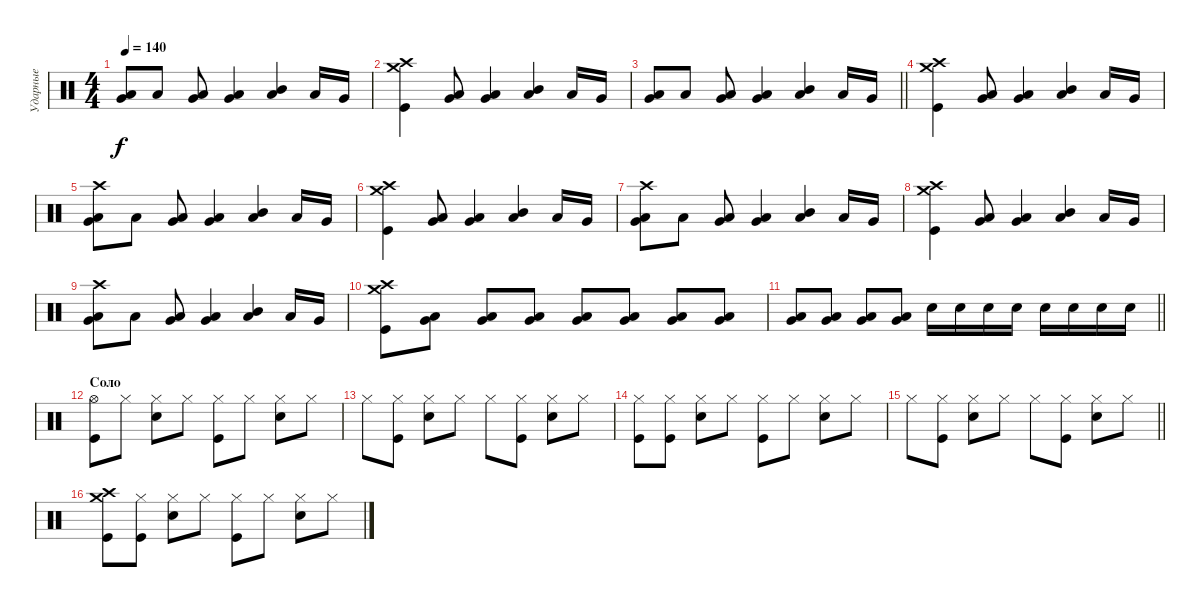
\track ("Ударные" "Ударные") {instrument percussion}
\staff {score}
\articulation defaults
\ts (4 4)
\tempo 140
\clef neutral
\ks c
("Low Floor Tom (hit)" "Very Low Tom (hit)").8{dy f} "Low Floor Tom (hit)".8 ("Low Floor Tom (hit)" "Very Low Tom (hit)").8 ("Very Low Tom (hit)" "Low Tom (hit)").4 ("Mid Tom (hit)" "Low Tom (hit)").4 "Low Tom (hit)".16 "Very Low Tom (hit)".16 |
("Crash medium (hit)" "Crash high (hit)" "Kick (hit)").4 ("Low Floor Tom (hit)" "Very Low Tom (hit)").8 ("Very Low Tom (hit)" "Low Tom (hit)").4 ("Mid Tom (hit)" "Low Tom (hit)").4 "Low Tom (hit)".16 "Very Low Tom (hit)".16 |
\barLineRight lightlight
("Low Floor Tom (hit)" "Very Low Tom (hit)").8 "Low Floor Tom (hit)".8 ("Low Floor Tom (hit)" "Very Low Tom (hit)").8 ("Very Low Tom (hit)" "Low Tom (hit)").4 ("Mid Tom (hit)" "Low Tom (hit)").4 "Low Tom (hit)".16 "Very Low Tom (hit)".16 |
("Crash medium (hit)" "Crash high (hit)" "Kick (hit)").4 ("Low Floor Tom (hit)" "Very Low Tom (hit)").8 ("Very Low Tom (hit)" "Low Tom (hit)").4 ("Mid Tom (hit)" "Low Tom (hit)").4 "Low Tom (hit)".16 "Very Low Tom (hit)".16 |
("Crash high (hit)" "Low Floor Tom (hit)" "Very Low Tom (hit)").8 "Low Floor Tom (hit)".8 ("Low Floor Tom (hit)" "Very Low Tom (hit)").8 ("Very Low Tom (hit)" "Low Tom (hit)").4 ("Mid Tom (hit)" "Low Tom (hit)").4 "Low Tom (hit)".16 "Very Low Tom (hit)".16 |
("Crash medium (hit)" "Crash high (hit)" "Kick (hit)").4 ("Low Floor Tom (hit)" "Very Low Tom (hit)").8 ("Very Low Tom (hit)" "Low Tom (hit)").4 ("Mid Tom (hit)" "Low Tom (hit)").4 "Low Tom (hit)".16 "Very Low Tom (hit)".16 |
("Crash high (hit)" "Low Floor Tom (hit)" "Very Low Tom (hit)").8 "Low Floor Tom (hit)".8 ("Low Floor Tom (hit)" "Very Low Tom (hit)").8 ("Very Low Tom (hit)" "Low Tom (hit)").4 ("Mid Tom (hit)" "Low Tom (hit)").4 "Low Tom (hit)".16 "Very Low Tom (hit)".16 |
("Crash medium (hit)" "Crash high (hit)" "Kick (hit)").4 ("Low Floor Tom (hit)" "Very Low Tom (hit)").8 ("Very Low Tom (hit)" "Low Tom (hit)").4 ("Mid Tom (hit)" "Low Tom (hit)").4 "Low Tom (hit)".16 "Very Low Tom (hit)".16 |
("Crash high (hit)" "Low Floor Tom (hit)" "Very Low Tom (hit)").8 "Low Floor Tom (hit)".8 ("Low Floor Tom (hit)" "Very Low Tom (hit)").8 ("Very Low Tom (hit)" "Low Tom (hit)").4 ("Mid Tom (hit)" "Low Tom (hit)").4 "Low Tom (hit)".16 "Very Low Tom (hit)".16 |
("Crash medium (hit)" "Crash high (hit)" "Kick (hit)").8 ("Low Floor Tom (hit)" "Very Low Tom (hit)").8 ("Low Floor Tom (hit)" "Very Low Tom (hit)").8 ("Low Floor Tom (hit)" "Very Low Tom (hit)").8 ("Low Floor Tom (hit)" "Very Low Tom (hit)").8 ("Low Floor Tom (hit)" "Very Low Tom (hit)").8 ("Low Floor Tom (hit)" "Very Low Tom (hit)").8 ("Low Floor Tom (hit)" "Very Low Tom (hit)").8 |
\barLineRight lightlight
("Low Floor Tom (hit)" "Very Low Tom (hit)").8 ("Low Floor Tom (hit)" "Very Low Tom (hit)").8 ("Low Floor Tom (hit)" "Very Low Tom (hit)").8 ("Low Floor Tom (hit)" "Very Low Tom (hit)").8 "Snare (hit) 2".16 "Snare (hit) 2".16 "Snare (hit) 2".16 "Snare (hit) 2".16 "Snare (hit) 2".16 "Snare (hit) 2".16 "Snare (hit) 2".16 "Snare (hit) 2".16 |
\section ("" "Соло")
("Hi-Hat (open)" "Kick (hit)").8 "Hi-Hat (closed)".8 ("Hi-Hat (closed)" "Snare (hit) 2").8 "Hi-Hat (closed)".8 ("Hi-Hat (closed)" "Kick (hit)").8 "Hi-Hat (closed)".8 ("Hi-Hat (closed)" "Snare (hit) 2").8 "Hi-Hat (closed)".8 |
"Hi-Hat (closed)".8 ("Hi-Hat (closed)" "Kick (hit)").8 ("Hi-Hat (closed)" "Snare (hit) 2").8 "Hi-Hat (closed)".8 "Hi-Hat (closed)".8 ("Hi-Hat (closed)" "Kick (hit)").8 ("Hi-Hat (closed)" "Snare (hit) 2").8 "Hi-Hat (closed)".8 |
("Hi-Hat (closed)" "Kick (hit)").8 ("Hi-Hat (closed)" "Kick (hit)").8 ("Hi-Hat (closed)" "Snare (hit) 2").8 "Hi-Hat (closed)".8 ("Hi-Hat (closed)" "Kick (hit)").8 "Hi-Hat (closed)".8 ("Hi-Hat (closed)" "Snare (hit) 2").8 "Hi-Hat (closed)".8 |
\barLineRight lightlight "Hi-Hat (closed)".8
("Hi-Hat (closed)" "Kick (hit)").8 ("Hi-Hat (closed)" "Snare (hit) 2").8 "Hi-Hat (closed)".8 "Hi-Hat (closed)".8 ("Hi-Hat (closed)" "Kick (hit)").8 ("Hi-Hat (closed)" "Snare (hit) 2").8 "Hi-Hat (closed)".8 |
("Crash high (hit)" "Crash medium (hit)" "Kick (hit)").8 ("Hi-Hat (closed)" "Kick (hit)").8 ("Hi-Hat (closed)" "Snare (hit) 2").8 "Hi-Hat (closed)".8 ("Hi-Hat (closed)" "Kick (hit)").8 "Hi-Hat (closed)".8 ("Hi-Hat (closed)" "Snare (hit) 2").8 "Hi-Hat (closed)".8
